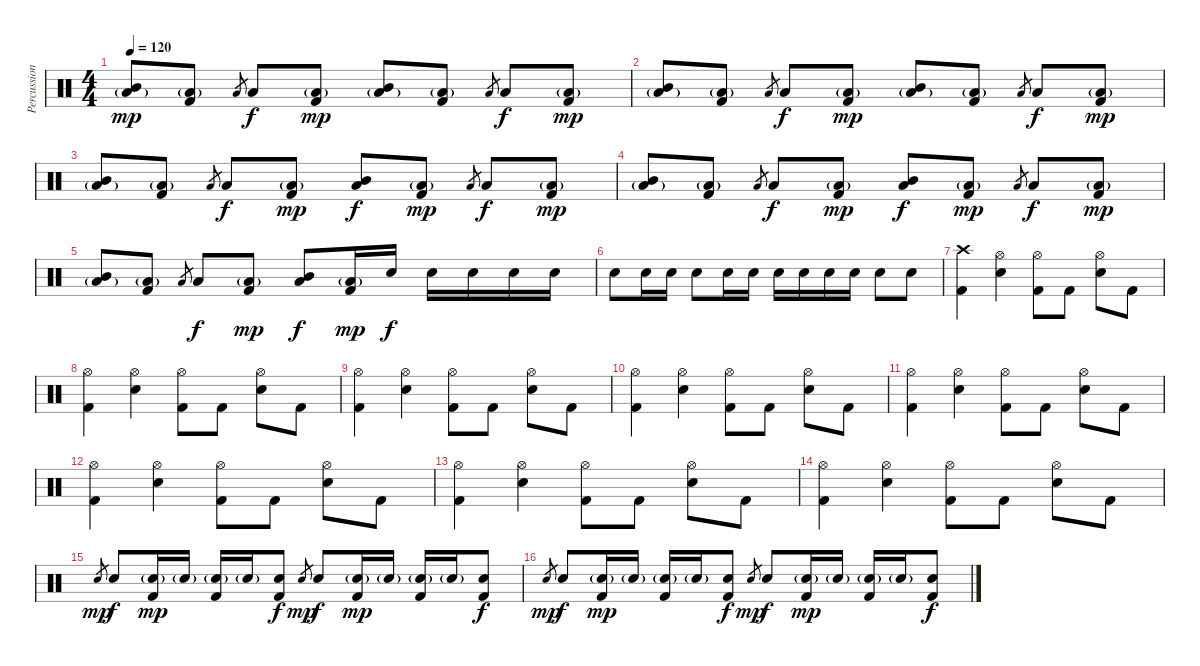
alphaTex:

\track ("Percussion" "Percussion") {instrument percussion}
\staff {score}
\articulation defaults
\ts (4 4)
\tempo 120
\clef neutral
\ks c
("Mid Tom (hit)" "Low Floor Tom (hit)"{g}).8{dy mp} ("Low Floor Tom (hit)"{g} "Kick (hit) 2").8 "Low Floor Tom (hit)".8{gr} "Low Floor Tom (hit)".8{dy f} ("Low Floor Tom (hit)"{g} "Kick (hit) 2").8{dy mp} ("Mid Tom (hit)" "Low Floor Tom (hit)"{g}).8 ("Low Floor Tom (hit)"{g} "Kick (hit) 2").8 "Low Floor Tom (hit)".8{gr} "Low Floor Tom (hit)".8{dy f} ("Low Floor Tom (hit)"{g} "Kick (hit) 2").8{dy mp} |
("Mid Tom (hit)" "Low Floor Tom (hit)"{g}).8 ("Low Floor Tom (hit)"{g} "Kick (hit) 2").8 "Low Floor Tom (hit)".8{gr} "Low Floor Tom (hit)".8{dy f} ("Low Floor Tom (hit)"{g} "Kick (hit) 2").8{dy mp} ("Mid Tom (hit)" "Low Floor Tom (hit)"{g}).8 ("Low Floor Tom (hit)"{g} "Kick (hit) 2").8 "Low Floor Tom (hit)".8{gr} "Low Floor Tom (hit)".8{dy f} ("Low Floor Tom (hit)"{g} "Kick (hit) 2").8{dy mp} |
("Mid Tom (hit)" "Low Floor Tom (hit)"{g}).8 ("Low Floor Tom (hit)"{g} "Kick (hit) 2").8 "Low Floor Tom (hit)".8{gr} "Low Floor Tom (hit)".8{dy f} ("Low Floor Tom (hit)"{g} "Kick (hit) 2").8{dy mp} ("Mid Tom (hit)" "Low Floor Tom (hit)").8{dy f} ("Low Floor Tom (hit)"{g} "Kick (hit) 2").8{dy mp} "Low Floor Tom (hit)".8{gr} "Low Floor Tom (hit)".8{dy f} ("Low Floor Tom (hit)"{g} "Kick (hit) 2").8{dy mp} |
("Mid Tom (hit)" "Low Floor Tom (hit)"{g}).8 ("Low Floor Tom (hit)"{g} "Kick (hit) 2").8 "Low Floor Tom (hit)".8{gr} "Low Floor Tom (hit)".8{dy f} ("Low Floor Tom (hit)"{g} "Kick (hit) 2").8{dy mp} ("Mid Tom (hit)" "Low Floor Tom (hit)").8{dy f} ("Low Floor Tom (hit)"{g} "Kick (hit) 2").8{dy mp} "Low Floor Tom (hit)".8{gr} "Low Floor Tom (hit)".8{dy f} ("Low Floor Tom (hit)"{g} "Kick (hit) 2").8{dy mp} |
("Mid Tom (hit)" "Low Floor Tom (hit)"{g}).8 ("Low Floor Tom (hit)"{g} "Kick (hit) 2").8 "Low Floor Tom (hit)".8{gr} "Low Floor Tom (hit)".8{dy f} ("Low Floor Tom (hit)"{g} "Kick (hit) 2").8{dy mp} ("Mid Tom (hit)" "Low Floor Tom (hit)").8{dy f} ("Low Floor Tom (hit)"{g} "Kick (hit) 2").16{dy mp} "Snare (hit) 2".16{dy f} "Snare (hit) 2".16 "Snare (hit) 2".16 "Snare (hit) 2".16 "Snare (hit) 2".16 |
"Snare (hit) 2".8 "Snare (hit) 2".16 "Snare (hit) 2".16 "Snare (hit) 2".8 "Snare (hit) 2".16 "Snare (hit) 2".16 "Snare (hit) 2".16 "Snare (hit) 2".16 "Snare (hit) 2".16 "Snare (hit) 2".16 "Snare (hit) 2".8 "Snare (hit) 2".8 |
("Crash high (hit)" "Kick (hit) 2").4 ("Hi-Hat (open)" "Snare (hit) 2").4 ("Hi-Hat (open)" "Kick (hit) 2").8 "Kick (hit) 2".8 ("Hi-Hat (open)" "Snare (hit) 2").8 "Kick (hit) 2".8 |
("Hi-Hat (open)" "Kick (hit) 2").4 ("Hi-Hat (open)" "Snare (hit) 2").4 ("Hi-Hat (open)" "Kick (hit) 2").8 "Kick (hit) 2".8 ("Hi-Hat (open)" "Snare (hit) 2").8 "Kick (hit) 2".8 |
("Hi-Hat (open)" "Kick (hit) 2").4 ("Hi-Hat (open)" "Snare (hit) 2").4 ("Hi-Hat (open)" "Kick (hit) 2").8 "Kick (hit) 2".8 ("Hi-Hat (open)" "Snare (hit) 2").8 "Kick (hit) 2".8 |
("Hi-Hat (open)" "Kick (hit) 2").4 ("Hi-Hat (open)" "Snare (hit) 2").4 ("Hi-Hat (open)" "Kick (hit) 2").8 "Kick (hit) 2".8 ("Hi-Hat (open)" "Snare (hit) 2").8 "Kick (hit) 2".8 |
("Hi-Hat (open)" "Kick (hit) 2").4 ("Hi-Hat (open)" "Snare (hit) 2").4 ("Hi-Hat (open)" "Kick (hit) 2").8 "Kick (hit) 2".8 ("Hi-Hat (open)" "Snare (hit) 2").8 "Kick (hit) 2".8 |
("Hi-Hat (open)" "Kick (hit) 2").4 ("Hi-Hat (open)" "Snare (hit) 2").4 ("Hi-Hat (open)" "Kick (hit) 2").8 "Kick (hit) 2".8 ("Hi-Hat (open)" "Snare (hit) 2").8 "Kick (hit) 2".8 |
("Hi-Hat (open)" "Kick (hit) 2").4 ("Hi-Hat (open)" "Snare (hit) 2").4 ("Hi-Hat (open)" "Kick (hit) 2").8 "Kick (hit) 2".8 ("Hi-Hat (open)" "Snare (hit) 2").8 "Kick (hit) 2".8 |
("Hi-Hat (open)" "Kick (hit) 2").4 ("Hi-Hat (open)" "Snare (hit) 2").4 ("Hi-Hat (open)" "Kick (hit) 2").8 "Kick (hit) 2".8 ("Hi-Hat (open)" "Snare (hit) 2").8 "Kick (hit) 2".8 |
"Snare (hit) 2".8{gr dy mp} "Snare (hit) 2".8{dy f} ("Snare (hit) 2"{g} "Kick (hit) 2").16{dy mp} "Snare (hit) 2"{g}.16 ("Snare (hit) 2"{g} "Kick (hit) 2").16 "Snare (hit) 2"{g}.16 ("Snare (hit) 2" "Kick (hit) 2").8{dy f} "Snare (hit) 2".8{gr dy mp} "Snare (hit) 2".8{dy f} ("Snare (hit) 2"{g} "Kick (hit) 2").16{dy mp} "Snare (hit) 2"{g}.16 ("Snare (hit) 2"{g} "Kick (hit) 2").16 "Snare (hit) 2"{g}.16 ("Snare (hit) 2" "Kick (hit) 2").8{dy f} |
"Snare (hit) 2".8{gr dy mp} "Snare (hit) 2".8{dy f} ("Snare (hit) 2"{g} "Kick (hit) 2").16{dy mp} "Snare (hit) 2"{g}.16 ("Snare (hit) 2"{g} "Kick (hit) 2").16 "Snare (hit) 2"{g}.16 ("Snare (hit) 2" "Kick (hit) 2").8{dy f} "Snare (hit) 2".8{gr dy mp} "Snare (hit) 2".8{dy f} ("Snare (hit) 2"{g} "Kick (hit) 2").16{dy mp} "Snare (hit) 2"{g}.16 ("Snare (hit) 2"{g} "Kick (hit) 2").16 "Snare (hit) 2"{g}.16 ("Snare (hit) 2" "Kick (hit) 2").8{dy f}
